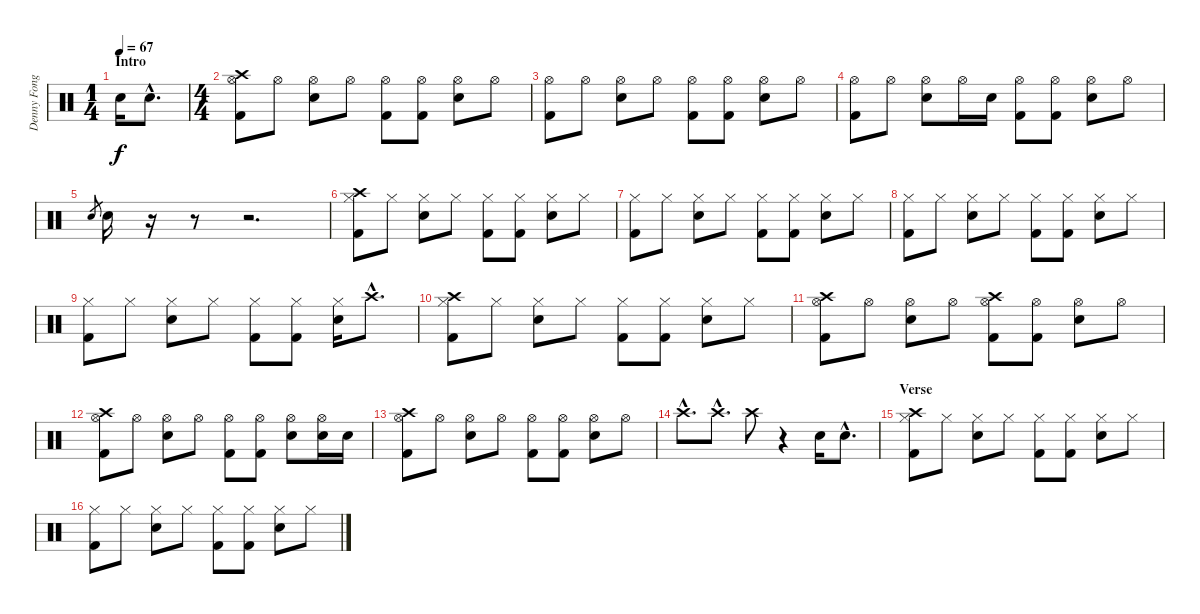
\track ("Denny Fongheiser - Drums" "Denny Fong") {instrument percussion}
\staff {score}
\articulation defaults
\ts (1 4)
\section ("" "Intro")
\tempo 67
\clef neutral
\ks c "Snare (hit) 2".16{dy f} "Snare (hit) 2"{hac}.8{d}
|
\ts (4 4)
("Hi-Hat (open)" "Kick (hit) 2" "Crash high (hit)").8 "Hi-Hat (open)".8 ("Hi-Hat (open)" "Snare (hit) 2").8 "Hi-Hat (open)".8 ("Hi-Hat (open)" "Kick (hit) 2").8 ("Hi-Hat (open)" "Kick (hit) 2").8 ("Hi-Hat (open)" "Snare (hit) 2").8 "Hi-Hat (open)".8 |
("Hi-Hat (open)" "Kick (hit) 2").8 "Hi-Hat (open)".8 ("Hi-Hat (open)" "Snare (hit) 2").8 "Hi-Hat (open)".8 ("Hi-Hat (open)" "Kick (hit) 2").8 ("Hi-Hat (open)" "Kick (hit) 2").8 ("Hi-Hat (open)" "Snare (hit) 2").8 "Hi-Hat (open)".8 |
("Hi-Hat (open)" "Kick (hit) 2").8 "Hi-Hat (open)".8 ("Hi-Hat (open)" "Snare (hit) 2").8 "Hi-Hat (open)".16 "Snare (hit) 2".16 ("Hi-Hat (open)" "Kick (hit) 2").8 ("Hi-Hat (open)" "Kick (hit) 2").8 ("Hi-Hat (open)" "Snare (hit) 2").8 "Hi-Hat (open)".8 |
"Snare (hit) 2".8{gr} "Snare (hit) 2".16 r.16 r.8 r.2{d} |
("Hi-Hat (closed)" "Kick (hit) 2" "Crash high (hit)").8 "Hi-Hat (closed)".8 ("Hi-Hat (closed)" "Snare (hit) 2").8 "Hi-Hat (closed)".8 ("Hi-Hat (closed)" "Kick (hit) 2").8 ("Hi-Hat (closed)" "Kick (hit) 2").8 ("Hi-Hat (closed)" "Snare (hit) 2").8 "Hi-Hat (closed)".8 |
("Hi-Hat (closed)" "Kick (hit) 2").8 "Hi-Hat (closed)".8 ("Hi-Hat (closed)" "Snare (hit) 2").8 "Hi-Hat (closed)".8 ("Hi-Hat (closed)" "Kick (hit) 2").8 ("Hi-Hat (closed)" "Kick (hit) 2").8 ("Hi-Hat (closed)" "Snare (hit) 2").8 "Hi-Hat (closed)".8 |
("Hi-Hat (closed)" "Kick (hit) 2").8 "Hi-Hat (closed)".8 ("Hi-Hat (closed)" "Snare (hit) 2").8 "Hi-Hat (closed)".8 ("Hi-Hat (closed)" "Kick (hit) 2").8 ("Hi-Hat (closed)" "Kick (hit) 2").8 ("Hi-Hat (closed)" "Snare (hit) 2").8 "Hi-Hat (closed)".8 |
("Hi-Hat (closed)" "Kick (hit) 2").8 "Hi-Hat (closed)".8 ("Hi-Hat (closed)" "Snare (hit) 2").8 "Hi-Hat (closed)".8 ("Hi-Hat (closed)" "Kick (hit) 2").8 ("Hi-Hat (closed)" "Kick (hit) 2").8 ("Hi-Hat (closed)" "Snare (hit) 2").16 "Crash high (hit)"{hac}.8{d} |
("Crash high (hit)" "Hi-Hat (closed)" "Kick (hit) 2").8 "Hi-Hat (closed)".8 ("Hi-Hat (closed)" "Snare (hit) 2").8 "Hi-Hat (closed)".8 ("Hi-Hat (closed)" "Kick (hit) 2").8 ("Hi-Hat (closed)" "Kick (hit) 2").8 ("Hi-Hat (closed)" "Snare (hit) 2").8 "Hi-Hat (closed)".8 |
("Hi-Hat (open)" "Kick (hit) 2" "Crash high (hit)").8 "Hi-Hat (open)".8 ("Hi-Hat (open)" "Snare (hit) 2").8 "Hi-Hat (open)".8 ("Hi-Hat (open)" "Kick (hit) 2" "Crash high (hit)").8 ("Hi-Hat (open)" "Kick (hit) 2").8 ("Hi-Hat (open)" "Snare (hit) 2").8 "Hi-Hat (open)".8 |
("Hi-Hat (open)" "Kick (hit) 2" "Crash high (hit)").8 "Hi-Hat (open)".8 ("Hi-Hat (open)" "Snare (hit) 2").8 "Hi-Hat (open)".8 ("Hi-Hat (open)" "Kick (hit) 2").8 ("Hi-Hat (open)" "Kick (hit) 2").8 ("Hi-Hat (open)" "Snare (hit) 2").8 ("Hi-Hat (open)" "Snare (hit) 2").16 "Snare (hit) 2".16 |
("Hi-Hat (open)" "Kick (hit) 2" "Crash high (hit)").8 "Hi-Hat (open)".8 ("Hi-Hat (open)" "Snare (hit) 2").8 "Hi-Hat (open)".8 ("Hi-Hat (open)" "Kick (hit) 2").8 ("Hi-Hat (open)" "Kick (hit) 2").8 ("Hi-Hat (open)" "Snare (hit) 2").8 "Hi-Hat (open)".8 |
"Crash high (hit)"{hac}.8{d} "Crash high (hit)"{hac}.8{d} "Crash high (hit)".8 r.4 "Snare (hit) 2".16 "Snare (hit) 2"{hac}.8{d} |
\section ("" "Verse")
("Hi-Hat (closed)" "Kick (hit) 2" "Crash high (hit)").8 "Hi-Hat (closed)".8 ("Hi-Hat (closed)" "Snare (hit) 2").8 "Hi-Hat (closed)".8 ("Hi-Hat (closed)" "Kick (hit) 2").8 ("Hi-Hat (closed)" "Kick (hit) 2").8 ("Hi-Hat (closed)" "Snare (hit) 2").8 "Hi-Hat (closed)".8 |
("Hi-Hat (closed)" "Kick (hit) 2").8 "Hi-Hat (closed)".8 ("Hi-Hat (closed)" "Snare (hit) 2").8 "Hi-Hat (closed)".8 ("Hi-Hat (closed)" "Kick (hit) 2").8 ("Hi-Hat (closed)" "Kick (hit) 2").8 ("Hi-Hat (closed)" "Snare (hit) 2").8 "Hi-Hat (closed)".8
